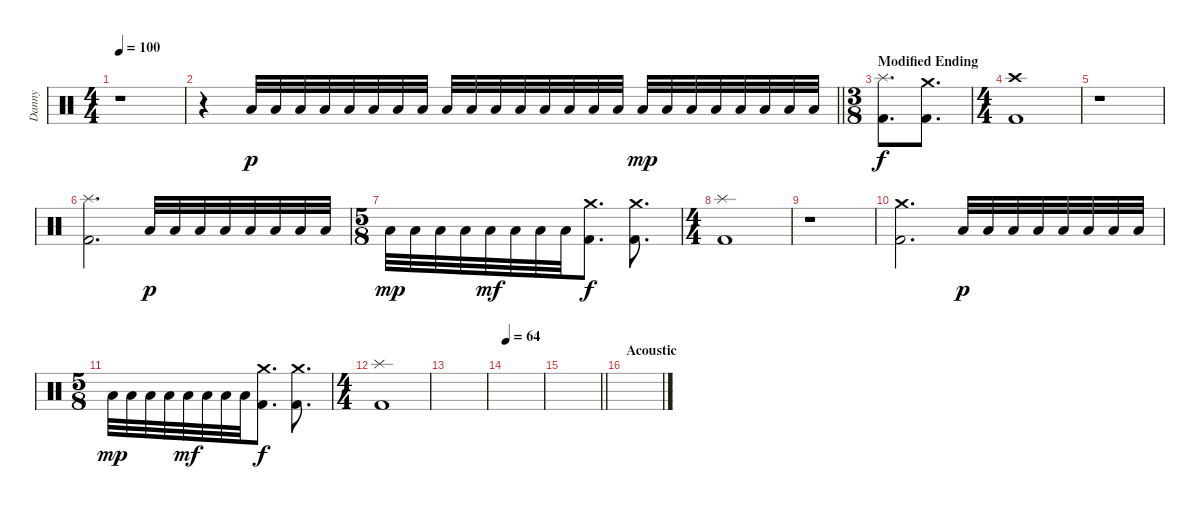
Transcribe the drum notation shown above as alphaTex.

\track ("Danny" "Danny") {instrument percussion}
\staff {score}
\articulation defaults
\ts (4 4)
\tempo 100
\clef neutral
\ks c
r.1{dy ppp} |
\barLineRight lightlight
r.4 "Low Floor Tom (hit)".32{dy p} "Low Floor Tom (hit)".32 "Low Floor Tom (hit)".32 "Low Floor Tom (hit)".32 "Low Floor Tom (hit)".32 "Low Floor Tom (hit)".32 "Low Floor Tom (hit)".32 "Low Floor Tom (hit)".32 "Low Floor Tom (hit)".32 "Low Floor Tom (hit)".32 "Low Floor Tom (hit)".32 "Low Floor Tom (hit)".32 "Low Floor Tom (hit)".32 "Low Floor Tom (hit)".32 "Low Floor Tom (hit)".32 "Low Floor Tom (hit)".32 "Low Floor Tom (hit)".32{dy mp} "Low Floor Tom (hit)".32 "Low Floor Tom (hit)".32 "Low Floor Tom (hit)".32 "Low Floor Tom (hit)".32 "Low Floor Tom (hit)".32 "Low Floor Tom (hit)".32 "Low Floor Tom (hit)".32 |
\ts (3 8)
\section ("" "Modified Ending")
("Splash (hit)" "Kick (hit) 2").8{d dy f} ("Crash medium (hit)" "Kick (hit) 2").8{d} |
\ts (4 4)
("Crash high (hit)" "Kick (hit) 2").1 |
r.1 |
("Splash (hit)" "Kick (hit) 2").2{d} "Low Floor Tom (hit)".32{dy p balance 13} "Low Floor Tom (hit)".32 "Low Floor Tom (hit)".32 "Low Floor Tom (hit)".32 "Low Floor Tom (hit)".32 "Low Floor Tom (hit)".32 "Low Floor Tom (hit)".32 "Low Floor Tom (hit)".32 |
\ts (5 8)
"Low Floor Tom (hit)".32{dy mp} "Low Floor Tom (hit)".32 "Low Floor Tom (hit)".32 "Low Floor Tom (hit)".32 "Low Floor Tom (hit)".32{dy mf} "Low Floor Tom (hit)".32 "Low Floor Tom (hit)".32 "Low Floor Tom (hit)".32 ("Crash medium (hit)" "Kick (hit) 2").8{d dy f balance 8} ("Crash medium (hit)" "Kick (hit) 2").8{d} |
\ts (4 4)
("Splash (hit)" "Kick (hit) 2").1 |
r.1 |
("Crash medium (hit)" "Kick (hit) 2").2{d} "Low Floor Tom (hit)".32{dy p balance 4} "Low Floor Tom (hit)".32 "Low Floor Tom (hit)".32{balance 6} "Low Floor Tom (hit)".32 "Low Floor Tom (hit)".32{balance 10} "Low Floor Tom (hit)".32 "Low Floor Tom (hit)".32 "Low Floor Tom (hit)".32 |
\ts (5 8)
"Low Floor Tom (hit)".32{dy mp} "Low Floor Tom (hit)".32 "Low Floor Tom (hit)".32 "Low Floor Tom (hit)".32 "Low Floor Tom (hit)".32{dy mf} "Low Floor Tom (hit)".32 "Low Floor Tom (hit)".32 "Low Floor Tom (hit)".32 ("Crash medium (hit)" "Kick (hit) 2").8{d dy f balance 8} ("Crash medium (hit)" "Kick (hit) 2").8{d} |
\ts (4 4)
("Splash (hit)" "Kick (hit) 2").1 |
|
\tempo 64
|
\barLineRight lightlight
|
\section ("" "Acoustic")
